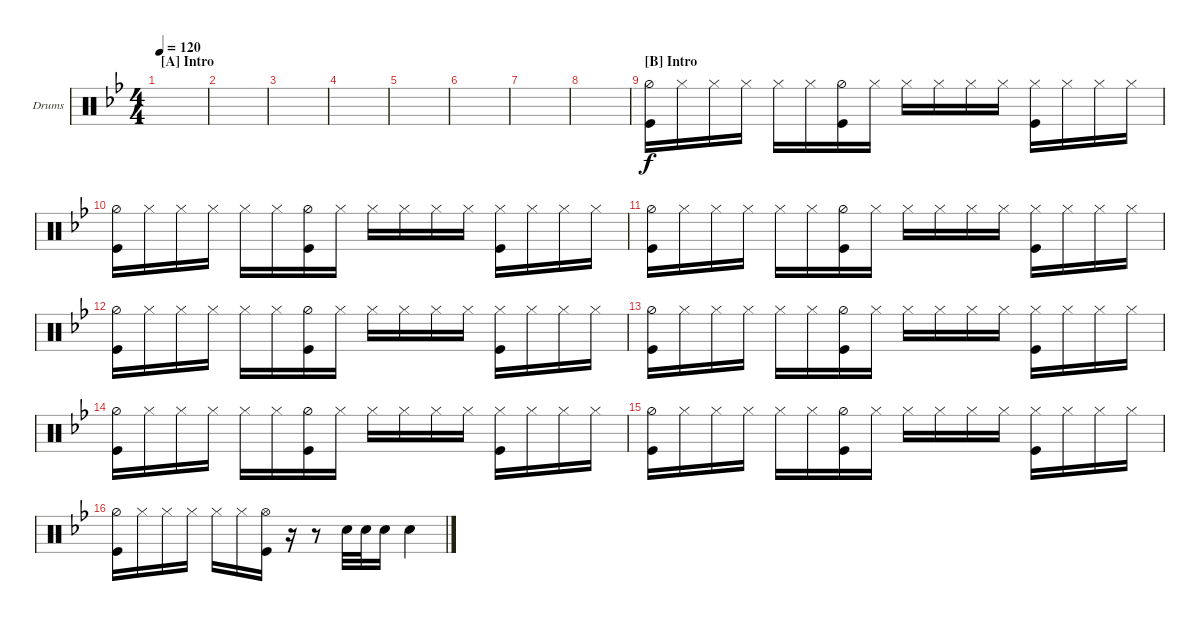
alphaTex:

\bracketExtendMode groupsimilarinstruments
\firstSystemTrackNameOrientation horizontal
\otherSystemsTrackNameOrientation horizontal
\track ("Drums Ghoul" "Drums") {instrument percussion}
\staff {score}
\articulation defaults
\ts (4 4)
\section ("A" "Intro")
\tempo 120
\clef neutral
\ks bb
|
|
|
|
|
|
|
|
\section ("B" "Intro")
("Hi-Hat (half)" "Kick (hit)").16 "Hi-Hat (closed)".16 "Hi-Hat (closed)".16 "Hi-Hat (closed)".16 "Hi-Hat (closed)".16 "Hi-Hat (closed)".16 ("Hi-Hat (half)" "Kick (hit)").16 "Hi-Hat (closed)".16 "Hi-Hat (closed)".16 "Hi-Hat (closed)".16 "Hi-Hat (closed)".16 "Hi-Hat (closed)".16 ("Kick (hit)" "Hi-Hat (closed)").16 "Hi-Hat (closed)".16 "Hi-Hat (closed)".16 "Hi-Hat (closed)".16 |
("Hi-Hat (half)" "Kick (hit)").16 "Hi-Hat (closed)".16 "Hi-Hat (closed)".16 "Hi-Hat (closed)".16 "Hi-Hat (closed)".16 "Hi-Hat (closed)".16 ("Hi-Hat (half)" "Kick (hit)").16 "Hi-Hat (closed)".16 "Hi-Hat (closed)".16 "Hi-Hat (closed)".16 "Hi-Hat (closed)".16 "Hi-Hat (closed)".16 ("Kick (hit)" "Hi-Hat (closed)").16 "Hi-Hat (closed)".16 "Hi-Hat (closed)".16 "Hi-Hat (closed)".16 |
("Hi-Hat (half)" "Kick (hit)").16 "Hi-Hat (closed)".16 "Hi-Hat (closed)".16 "Hi-Hat (closed)".16 "Hi-Hat (closed)".16 "Hi-Hat (closed)".16 ("Hi-Hat (half)" "Kick (hit)").16 "Hi-Hat (closed)".16 "Hi-Hat (closed)".16 "Hi-Hat (closed)".16 "Hi-Hat (closed)".16 "Hi-Hat (closed)".16 ("Kick (hit)" "Hi-Hat (closed)").16 "Hi-Hat (closed)".16 "Hi-Hat (closed)".16 "Hi-Hat (closed)".16 |
("Hi-Hat (half)" "Kick (hit)").16 "Hi-Hat (closed)".16 "Hi-Hat (closed)".16 "Hi-Hat (closed)".16 "Hi-Hat (closed)".16 "Hi-Hat (closed)".16 ("Hi-Hat (half)" "Kick (hit)").16 "Hi-Hat (closed)".16 "Hi-Hat (closed)".16 "Hi-Hat (closed)".16 "Hi-Hat (closed)".16 "Hi-Hat (closed)".16 ("Kick (hit)" "Hi-Hat (closed)").16 "Hi-Hat (closed)".16 "Hi-Hat (closed)".16 "Hi-Hat (closed)".16 |
("Hi-Hat (half)" "Kick (hit)").16 "Hi-Hat (closed)".16 "Hi-Hat (closed)".16 "Hi-Hat (closed)".16 "Hi-Hat (closed)".16 "Hi-Hat (closed)".16 ("Hi-Hat (half)" "Kick (hit)").16 "Hi-Hat (closed)".16 "Hi-Hat (closed)".16 "Hi-Hat (closed)".16 "Hi-Hat (closed)".16 "Hi-Hat (closed)".16 ("Kick (hit)" "Hi-Hat (closed)").16 "Hi-Hat (closed)".16 "Hi-Hat (closed)".16 "Hi-Hat (closed)".16 |
("Hi-Hat (half)" "Kick (hit)").16 "Hi-Hat (closed)".16 "Hi-Hat (closed)".16 "Hi-Hat (closed)".16 "Hi-Hat (closed)".16 "Hi-Hat (closed)".16 ("Hi-Hat (half)" "Kick (hit)").16 "Hi-Hat (closed)".16 "Hi-Hat (closed)".16 "Hi-Hat (closed)".16 "Hi-Hat (closed)".16 "Hi-Hat (closed)".16 ("Kick (hit)" "Hi-Hat (closed)").16 "Hi-Hat (closed)".16 "Hi-Hat (closed)".16 "Hi-Hat (closed)".16 |
("Hi-Hat (half)" "Kick (hit)").16 "Hi-Hat (closed)".16 "Hi-Hat (closed)".16 "Hi-Hat (closed)".16 "Hi-Hat (closed)".16 "Hi-Hat (closed)".16 ("Hi-Hat (half)" "Kick (hit)").16 "Hi-Hat (closed)".16 "Hi-Hat (closed)".16 "Hi-Hat (closed)".16 "Hi-Hat (closed)".16 "Hi-Hat (closed)".16 ("Kick (hit)" "Hi-Hat (closed)").16 "Hi-Hat (closed)".16 "Hi-Hat (closed)".16 "Hi-Hat (closed)".16 |
("Hi-Hat (half)" "Kick (hit)").16 "Hi-Hat (closed)".16 "Hi-Hat (closed)".16 "Hi-Hat (closed)".16 "Hi-Hat (closed)".16 "Hi-Hat (closed)".16 ("Hi-Hat (open)" "Kick (hit)").16 r.16 r.8 "Snare (hit) 2".32 "Snare (hit) 2".32 "Snare (hit) 2".16 "Snare (hit) 2".4
